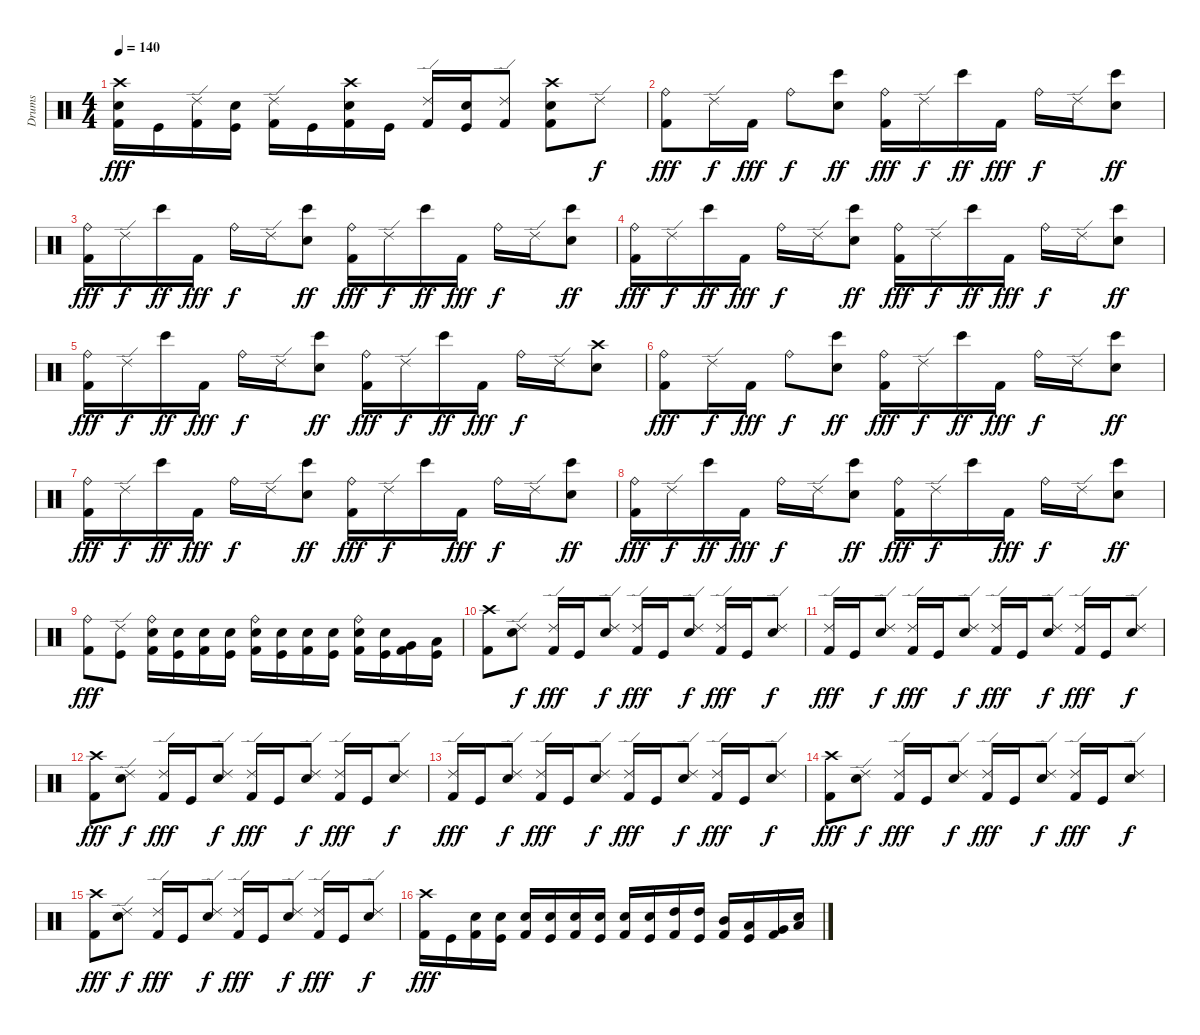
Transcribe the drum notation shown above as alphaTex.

\track ("Drums" "Drums") {instrument percussion}
\staff {score}
\articulation defaults
\ts (4 4)
\tempo 140
\clef neutral
\ks c
("Crash high (hit)" "Electric Snare (hit)" "Kick (hit) 2").16{dy fff} "Kick (hit)".16 ("Ride (edge) 2" "Kick (hit) 2").16 ("Electric Snare (hit)" "Kick (hit)").16 ("Ride (edge) 2" "Kick (hit) 2").16 "Kick (hit)".16 ("Crash high (hit)" "Electric Snare (hit)" "Kick (hit) 2").16 "Kick (hit)".16 ("Ride (edge) 2" "Kick (hit) 2").16 ("Electric Snare (hit)" "Kick (hit)").16 ("Ride (edge) 2" "Kick (hit) 2").8 ("Crash high (hit)" "Electric Snare (hit)" "Kick (hit) 2").8 "Ride (edge) 2".8{dy f} |
("Ride (bell)" "Kick (hit) 2").8{dy fff} "Ride (edge) 2".16{dy f} "Kick (hit) 2".16{dy fff} "Ride (bell)".8{dy f} ("Bongo High (hit)" "Electric Snare (hit)").8{dy ff} ("Ride (bell)" "Kick (hit) 2").16{dy fff} "Ride (edge) 2".16{dy f} "Bongo High (hit)".16{dy ff} "Kick (hit) 2".16{dy fff} "Ride (bell)".16{dy f} "Ride (edge) 2".16 ("Bongo High (hit)" "Electric Snare (hit)").8{dy ff} |
("Ride (bell)" "Kick (hit) 2").16{dy fff} "Ride (edge) 2".16{dy f} "Bongo High (hit)".16{dy ff} "Kick (hit) 2".16{dy fff} "Ride (bell)".16{dy f} "Ride (edge) 2".16 ("Bongo High (hit)" "Electric Snare (hit)").8{dy ff} ("Ride (bell)" "Kick (hit) 2").16{dy fff} "Ride (edge) 2".16{dy f} "Bongo High (hit)".16{dy ff} "Kick (hit) 2".16{dy fff} "Ride (bell)".16{dy f} "Ride (edge) 2".16 ("Bongo High (hit)" "Electric Snare (hit)").8{dy ff} |
("Ride (bell)" "Kick (hit) 2").16{dy fff} "Ride (edge) 2".16{dy f} "Bongo High (hit)".16{dy ff} "Kick (hit) 2".16{dy fff} "Ride (bell)".16{dy f} "Ride (edge) 2".16 ("Bongo High (hit)" "Electric Snare (hit)").8{dy ff} ("Ride (bell)" "Kick (hit) 2").16{dy fff} "Ride (edge) 2".16{dy f} "Bongo High (hit)".16{dy ff} "Kick (hit) 2".16{dy fff} "Ride (bell)".16{dy f} "Ride (edge) 2".16 ("Bongo High (hit)" "Electric Snare (hit)").8{dy ff} |
("Ride (bell)" "Kick (hit) 2").16{dy fff} "Ride (edge) 2".16{dy f} "Bongo High (hit)".16{dy ff} "Kick (hit) 2".16{dy fff} "Ride (bell)".16{dy f} "Ride (edge) 2".16 ("Bongo High (hit)" "Electric Snare (hit)").8{dy ff} ("Ride (bell)" "Kick (hit) 2").16{dy fff} "Ride (edge) 2".16{dy f} "Bongo High (hit)".16{dy ff} "Kick (hit) 2".16{dy fff} "Ride (bell)".16{dy f} "Ride (edge) 2".16 ("Crash high (hit)" "Electric Snare (hit)").8 |
("Ride (bell)" "Kick (hit) 2").8{dy fff} "Ride (edge) 2".16{dy f} "Kick (hit) 2".16{dy fff} "Ride (bell)".8{dy f} ("Bongo High (hit)" "Electric Snare (hit)").8{dy ff} ("Ride (bell)" "Kick (hit) 2").16{dy fff} "Ride (edge) 2".16{dy f} "Bongo High (hit)".16{dy ff} "Kick (hit) 2".16{dy fff} "Ride (bell)".16{dy f} "Ride (edge) 2".16 ("Bongo High (hit)" "Electric Snare (hit)").8{dy ff} |
("Ride (bell)" "Kick (hit) 2").16{dy fff} "Ride (edge) 2".16{dy f} "Bongo High (hit)".16{dy ff} "Kick (hit) 2".16{dy fff} "Ride (bell)".16{dy f} "Ride (edge) 2".16 ("Bongo High (hit)" "Electric Snare (hit)").8{dy ff} ("Ride (bell)" "Kick (hit) 2").16{dy fff} "Ride (edge) 2".16{dy f} "Bongo High (hit)".16 "Kick (hit) 2".16{dy fff} "Ride (bell)".16{dy f} "Ride (edge) 2".16 ("Bongo High (hit)" "Electric Snare (hit)").8{dy ff} |
("Ride (bell)" "Kick (hit) 2").16{dy fff} "Ride (edge) 2".16{dy f} "Bongo High (hit)".16{dy ff} "Kick (hit) 2".16{dy fff} "Ride (bell)".16{dy f} "Ride (edge) 2".16 ("Bongo High (hit)" "Electric Snare (hit)").8{dy ff} ("Ride (bell)" "Kick (hit) 2").16{dy fff} "Ride (edge) 2".16{dy f} "Bongo High (hit)".16 "Kick (hit) 2".16{dy fff} "Ride (bell)".16{dy f} "Ride (edge) 2".16 ("Bongo High (hit)" "Electric Snare (hit)").8{dy ff} |
("Ride (bell)" "Kick (hit) 2").8{dy fff} ("Ride (edge) 2" "Kick (hit)").8 ("Ride (bell)" "Electric Snare (hit)" "Kick (hit) 2").16 ("Electric Snare (hit)" "Kick (hit)").16 ("Electric Snare (hit)" "Kick (hit) 2").16 ("Electric Snare (hit)" "Kick (hit)").16 ("Ride (bell)" "Electric Snare (hit)" "Kick (hit) 2").16 ("Electric Snare (hit)" "Kick (hit)").16 ("Electric Snare (hit)" "Kick (hit) 2").16 ("Electric Snare (hit)" "Kick (hit)").16 ("Ride (bell)" "Electric Snare (hit)" "Kick (hit) 2").16 ("Electric Snare (hit)" "Kick (hit)").16 ("Very Low Tom (hit)" "Kick (hit) 2").16 ("Low Floor Tom (hit)" "Kick (hit)").16 |
("Crash high (hit)" "Kick (hit) 2").8 ("Ride (edge) 2" "Electric Snare (hit)").8{dy f} ("Ride (edge) 2" "Kick (hit) 2").16{dy fff} "Kick (hit)".16 ("Ride (edge) 2" "Electric Snare (hit)").8{dy f} ("Ride (edge) 2" "Kick (hit) 2").16{dy fff} "Kick (hit)".16 ("Ride (edge) 2" "Electric Snare (hit)").8{dy f} ("Ride (edge) 2" "Kick (hit) 2").16{dy fff} "Kick (hit)".16 ("Ride (edge) 2" "Electric Snare (hit)").8{dy f} |
("Ride (edge) 2" "Kick (hit) 2").16{dy fff} "Kick (hit)".16 ("Ride (edge) 2" "Electric Snare (hit)").8{dy f} ("Ride (edge) 2" "Kick (hit) 2").16{dy fff} "Kick (hit)".16 ("Ride (edge) 2" "Electric Snare (hit)").8{dy f} ("Ride (edge) 2" "Kick (hit) 2").16{dy fff} "Kick (hit)".16 ("Ride (edge) 2" "Electric Snare (hit)").8{dy f} ("Ride (edge) 2" "Kick (hit) 2").16{dy fff} "Kick (hit)".16 ("Ride (edge) 2" "Electric Snare (hit)").8{dy f} |
("Crash high (hit)" "Kick (hit) 2").8{dy fff} ("Ride (edge) 2" "Electric Snare (hit)").8{dy f} ("Ride (edge) 2" "Kick (hit) 2").16{dy fff} "Kick (hit)".16 ("Ride (edge) 2" "Electric Snare (hit)").8{dy f} ("Ride (edge) 2" "Kick (hit) 2").16{dy fff} "Kick (hit)".16 ("Ride (edge) 2" "Electric Snare (hit)").8{dy f} ("Ride (edge) 2" "Kick (hit) 2").16{dy fff} "Kick (hit)".16 ("Ride (edge) 2" "Electric Snare (hit)").8{dy f} |
("Ride (edge) 2" "Kick (hit) 2").16{dy fff} "Kick (hit)".16 ("Ride (edge) 2" "Electric Snare (hit)").8{dy f} ("Ride (edge) 2" "Kick (hit) 2").16{dy fff} "Kick (hit)".16 ("Ride (edge) 2" "Electric Snare (hit)").8{dy f} ("Ride (edge) 2" "Kick (hit) 2").16{dy fff} "Kick (hit)".16 ("Ride (edge) 2" "Electric Snare (hit)").8{dy f} ("Ride (edge) 2" "Kick (hit) 2").16{dy fff} "Kick (hit)".16 ("Ride (edge) 2" "Electric Snare (hit)").8{dy f} |
("Crash high (hit)" "Kick (hit) 2").8{dy fff} ("Ride (edge) 2" "Electric Snare (hit)").8{dy f} ("Ride (edge) 2" "Kick (hit) 2").16{dy fff} "Kick (hit)".16 ("Ride (edge) 2" "Electric Snare (hit)").8{dy f} ("Ride (edge) 2" "Kick (hit) 2").16{dy fff} "Kick (hit)".16 ("Ride (edge) 2" "Electric Snare (hit)").8{dy f} ("Ride (edge) 2" "Kick (hit) 2").16{dy fff} "Kick (hit)".16 ("Ride (edge) 2" "Electric Snare (hit)").8{dy f} |
("Crash high (hit)" "Kick (hit) 2").8{dy fff} ("Ride (edge) 2" "Electric Snare (hit)").8{dy f} ("Ride (edge) 2" "Kick (hit) 2").16{dy fff} "Kick (hit)".16 ("Ride (edge) 2" "Electric Snare (hit)").8{dy f} ("Ride (edge) 2" "Kick (hit) 2").16{dy fff} "Kick (hit)".16 ("Ride (edge) 2" "Electric Snare (hit)").8{dy f} ("Ride (edge) 2" "Kick (hit) 2").16{dy fff} "Kick (hit)".16 ("Ride (edge) 2" "Electric Snare (hit)").8{dy f} |
("Crash high (hit)" "Kick (hit) 2").16{dy fff} "Kick (hit)".16 ("Electric Snare (hit)" "Kick (hit) 2").16 ("Electric Snare (hit)" "Kick (hit)").16 ("Electric Snare (hit)" "Kick (hit) 2").16 ("Electric Snare (hit)" "Kick (hit)").16 ("Electric Snare (hit)" "Kick (hit) 2").16 ("Electric Snare (hit)" "Kick (hit)").16 ("Electric Snare (hit)" "Kick (hit) 2").16 ("Electric Snare (hit)" "Kick (hit)").16 ("High Tom (hit)" "Kick (hit) 2").16 ("High Tom (hit)" "Kick (hit)").16 ("Mid Tom (hit)" "Kick (hit) 2").16 ("Low Tom (hit)" "Kick (hit)").16 ("Very Low Tom (hit)" "Kick (hit) 2").16 ("Low Floor Tom (hit)" "Snare (hit)").16
